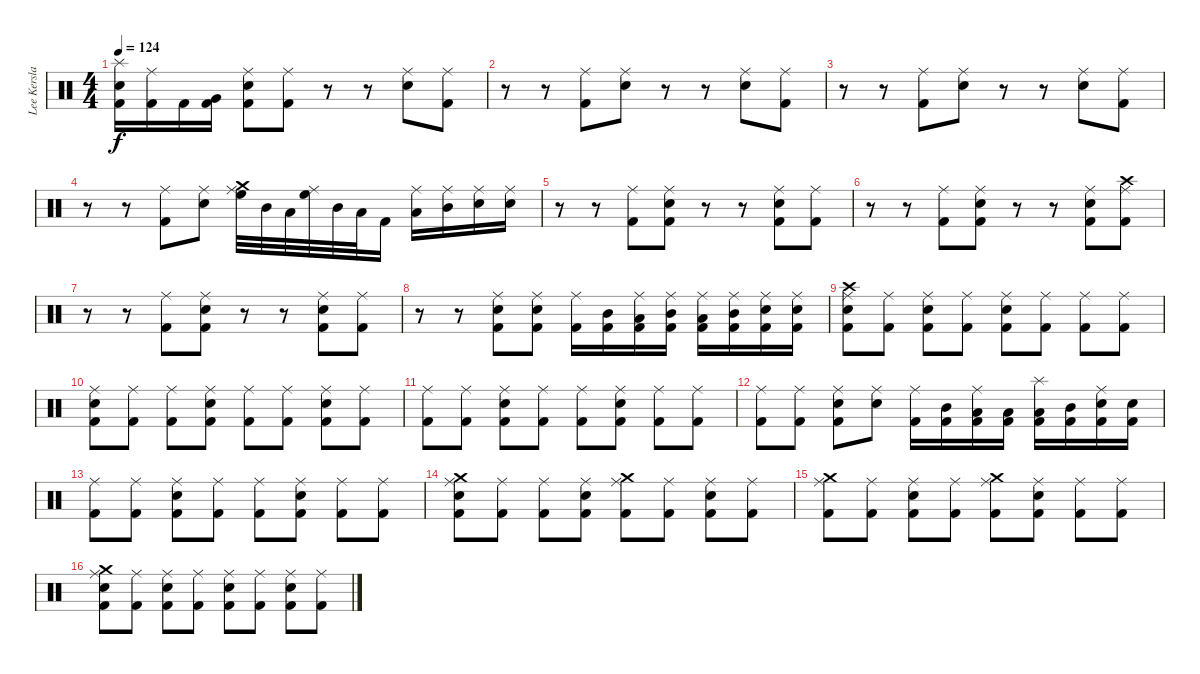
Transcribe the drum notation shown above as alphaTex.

\track ("Lee Kerslake" "Lee Kersla") {instrument percussion}
\staff {score}
\articulation defaults
\ts (4 4)
\tempo 124
\clef neutral
\ks c
("Kick (hit) 2" "Electric Snare (hit)" "Splash (hit)").16{dy f} ("Kick (hit) 2" "Ride (middle)").16 "Kick (hit) 2".16 ("Kick (hit) 2" "Very Low Tom (hit)").16 ("Kick (hit) 2" "Electric Snare (hit)" "Ride (middle)").8 ("Kick (hit) 2" "Ride (middle)").8 r.8 r.8 ("Electric Snare (hit)" "Ride (middle)").8 ("Kick (hit) 2" "Ride (middle)").8 |
r.8 r.8 ("Kick (hit) 2" "Ride (middle)").8 ("Electric Snare (hit)" "Ride (middle)").8 r.8 r.8 ("Electric Snare (hit)" "Ride (middle)").8 ("Kick (hit) 2" "Ride (middle)").8 |
r.8 r.8 ("Kick (hit) 2" "Ride (middle)").8 ("Electric Snare (hit)" "Ride (middle)").8 r.8 r.8 ("Electric Snare (hit)" "Ride (middle)").8 ("Kick (hit) 2" "Ride (middle)").8 |
r.8 r.8 ("Kick (hit) 2" "Ride (middle)").8 ("Electric Snare (hit)" "Ride (middle)").8 ("High Floor Tom (hit)" "Crash medium (hit)" "Ride (middle)").32 "Mid Tom (hit)".32 "Low Tom (hit)".32 ("High Floor Tom (hit)" "Ride (middle)").32 "Mid Tom (hit)".32 "Low Tom (hit)".32 "Kick (hit) 2".16 ("Low Tom (hit)" "Ride (middle)").16 ("Mid Tom (hit)" "Ride (middle)").16 ("Electric Snare (hit)" "Ride (middle)").16 ("Electric Snare (hit)" "Ride (middle)").16 |
r.8 r.8 ("Kick (hit) 2" "Ride (middle)").8 ("Kick (hit) 2" "Electric Snare (hit)" "Ride (middle)").8 r.8 r.8 ("Kick (hit) 2" "Electric Snare (hit)" "Ride (middle)").8 ("Kick (hit) 2" "Ride (middle)").8 |
r.8 r.8 ("Kick (hit) 2" "Ride (middle)").8 ("Kick (hit) 2" "Electric Snare (hit)" "Ride (middle)").8 r.8 r.8 ("Kick (hit) 2" "Electric Snare (hit)" "Ride (middle)").8 ("Kick (hit) 2" "Crash high (hit)" "Ride (middle)").8 |
r.8 r.8 ("Kick (hit) 2" "Ride (middle)").8 ("Kick (hit) 2" "Electric Snare (hit)" "Ride (middle)").8 r.8 r.8 ("Kick (hit) 2" "Electric Snare (hit)" "Ride (middle)").8 ("Kick (hit) 2" "Ride (middle)").8 |
r.8 r.8 ("Kick (hit) 2" "Electric Snare (hit)" "Ride (middle)").8 ("Kick (hit) 2" "Electric Snare (hit)" "Ride (middle)").8 ("Kick (hit) 2" "Ride (middle)").16 ("Kick (hit) 2" "Mid Tom (hit)").16 ("Low Tom (hit)" "Kick (hit) 2" "Ride (middle)").16 ("Kick (hit) 2" "Mid Tom (hit)" "Ride (middle)").16 ("Kick (hit) 2" "Low Tom (hit)" "Ride (middle)").16 ("Kick (hit) 2" "Mid Tom (hit)" "Ride (middle)").16 ("Kick (hit) 2" "Electric Snare (hit)" "Ride (middle)").16 ("Kick (hit) 2" "Electric Snare (hit)" "Ride (middle)").16 |
("Kick (hit) 2" "Electric Snare (hit)" "Crash high (hit)" "Ride (middle)").8 ("Kick (hit) 2" "Ride (middle)").8 ("Kick (hit) 2" "Electric Snare (hit)" "Ride (middle)").8 ("Kick (hit) 2" "Ride (middle)").8 ("Kick (hit) 2" "Electric Snare (hit)" "Ride (middle)").8 ("Kick (hit) 2" "Ride (middle)").8 ("Kick (hit) 2" "Ride (middle)").8 ("Kick (hit) 2" "Ride (middle)").8 |
("Kick (hit) 2" "Electric Snare (hit)" "Ride (middle)").8 ("Kick (hit) 2" "Ride (middle)").8 ("Kick (hit) 2" "Ride (middle)").8 ("Kick (hit) 2" "Electric Snare (hit)" "Ride (middle)").8 ("Kick (hit) 2" "Ride (middle)").8 ("Kick (hit) 2" "Ride (middle)").8 ("Kick (hit) 2" "Electric Snare (hit)" "Ride (middle)").8 ("Kick (hit) 2" "Ride (middle)").8 |
("Kick (hit) 2" "Ride (middle)").8 ("Kick (hit) 2" "Ride (middle)").8 ("Kick (hit) 2" "Electric Snare (hit)" "Ride (middle)").8 ("Kick (hit) 2" "Ride (middle)").8 ("Kick (hit) 2" "Ride (middle)").8 ("Kick (hit) 2" "Electric Snare (hit)" "Ride (middle)").8 ("Kick (hit) 2" "Ride (middle)").8 ("Kick (hit) 2" "Ride (middle)").8 |
("Kick (hit) 2" "Ride (middle)").8 ("Kick (hit) 2" "Ride (middle)").8 ("Kick (hit) 2" "Electric Snare (hit)" "Ride (middle)").8 ("Electric Snare (hit)" "Ride (middle)").8 ("Kick (hit) 2" "Ride (middle)").16 ("Kick (hit) 2" "Mid Tom (hit)").16 ("Low Tom (hit)" "Kick (hit) 2" "Ride (middle)").16 ("Kick (hit) 2" "Low Floor Tom (hit)").16 ("Kick (hit) 2" "Low Tom (hit)" "Splash (hit)").16 ("Kick (hit) 2" "Mid Tom (hit)").16 ("Kick (hit) 2" "Electric Snare (hit)" "Ride (middle)").16 ("Kick (hit) 2" "Electric Snare (hit)").16 |
("Kick (hit) 2" "Ride (middle)").8 ("Kick (hit) 2" "Ride (middle)").8 ("Kick (hit) 2" "Electric Snare (hit)" "Ride (middle)").8 ("Kick (hit) 2" "Ride (middle)").8 ("Kick (hit) 2" "Ride (middle)").8 ("Kick (hit) 2" "Electric Snare (hit)" "Ride (middle)").8 ("Kick (hit) 2" "Ride (middle)").8 ("Kick (hit) 2" "Ride (middle)").8 |
("Kick (hit) 2" "Electric Snare (hit)" "Crash medium (hit)" "Ride (middle)").8 ("Kick (hit) 2" "Ride (middle)").8 ("Kick (hit) 2" "Ride (middle)").8 ("Kick (hit) 2" "Electric Snare (hit)" "Ride (middle)").8 ("Kick (hit) 2" "Crash medium (hit)" "Ride (middle)").8 ("Kick (hit) 2" "Ride (middle)").8 ("Kick (hit) 2" "Electric Snare (hit)" "Ride (middle)").8 ("Kick (hit) 2" "Ride (middle)").8 |
("Kick (hit) 2" "Crash medium (hit)" "Ride (middle)").8 ("Kick (hit) 2" "Ride (middle)").8 ("Kick (hit) 2" "Electric Snare (hit)" "Ride (middle)").8 ("Kick (hit) 2" "Ride (middle)").8 ("Kick (hit) 2" "Crash medium (hit)" "Ride (middle)").8 ("Kick (hit) 2" "Electric Snare (hit)" "Ride (middle)").8 ("Kick (hit) 2" "Ride (middle)").8 ("Kick (hit) 2" "Ride (middle)").8 |
("Kick (hit) 2" "Electric Snare (hit)" "Crash medium (hit)" "Ride (middle)").8 ("Kick (hit) 2" "Ride (middle)").8 ("Kick (hit) 2" "Electric Snare (hit)" "Ride (middle)").8 ("Kick (hit) 2" "Ride (middle)").8 ("Kick (hit) 2" "Electric Snare (hit)" "Ride (middle)").8 ("Kick (hit) 2" "Ride (middle)").8 ("Kick (hit) 2" "Electric Snare (hit)" "Ride (middle)").8 ("Kick (hit) 2" "Ride (middle)").8
